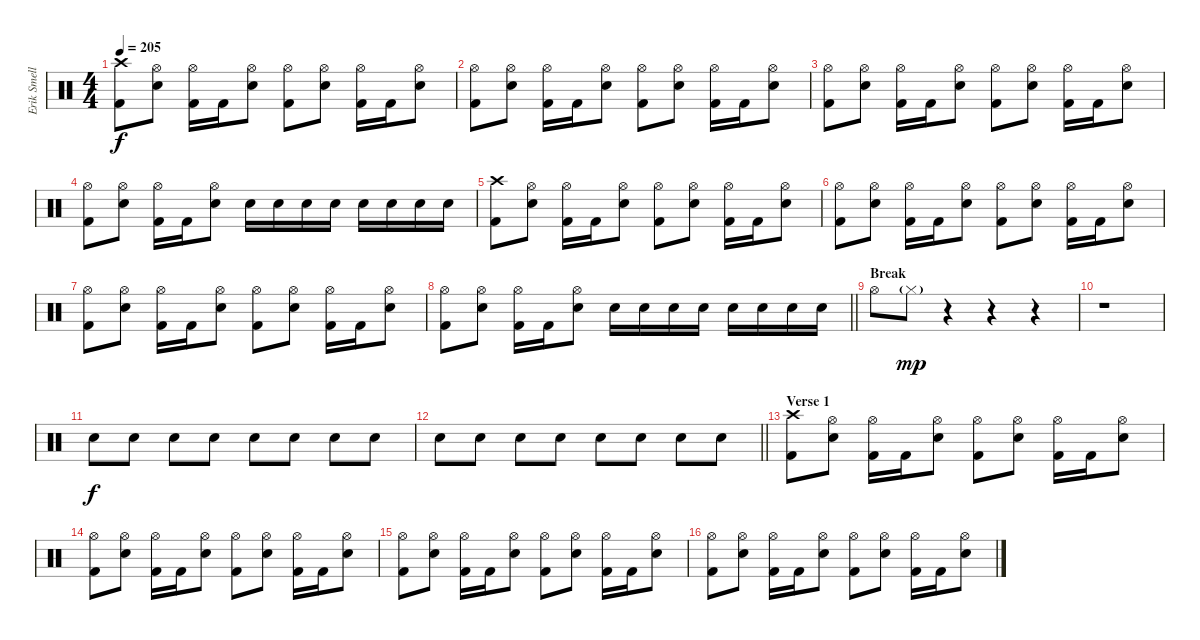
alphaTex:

\track ("Erik Smelly" "Erik Smell") {instrument percussion}
\staff {score}
\articulation defaults
\ts (4 4)
\tempo 205
\clef neutral
\ks c
("Crash high (hit)" "Kick (hit) 2").8{dy f} ("Hi-Hat (open)" "Electric Snare (hit)").8 ("Hi-Hat (open)" "Kick (hit) 2").16 "Kick (hit) 2".16 ("Hi-Hat (open)" "Electric Snare (hit)").8 ("Hi-Hat (open)" "Kick (hit) 2").8 ("Hi-Hat (open)" "Electric Snare (hit)").8 ("Hi-Hat (open)" "Kick (hit) 2").16 "Kick (hit) 2".16 ("Hi-Hat (open)" "Electric Snare (hit)").8 |
("Hi-Hat (open)" "Kick (hit) 2").8 ("Hi-Hat (open)" "Electric Snare (hit)").8 ("Hi-Hat (open)" "Kick (hit) 2").16 "Kick (hit) 2".16 ("Hi-Hat (open)" "Electric Snare (hit)").8 ("Hi-Hat (open)" "Kick (hit) 2").8 ("Hi-Hat (open)" "Electric Snare (hit)").8 ("Hi-Hat (open)" "Kick (hit) 2").16 "Kick (hit) 2".16 ("Hi-Hat (open)" "Electric Snare (hit)").8 |
("Hi-Hat (open)" "Kick (hit) 2").8 ("Hi-Hat (open)" "Electric Snare (hit)").8 ("Hi-Hat (open)" "Kick (hit) 2").16 "Kick (hit) 2".16 ("Hi-Hat (open)" "Electric Snare (hit)").8 ("Hi-Hat (open)" "Kick (hit) 2").8 ("Hi-Hat (open)" "Electric Snare (hit)").8 ("Hi-Hat (open)" "Kick (hit) 2").16 "Kick (hit) 2".16 ("Hi-Hat (open)" "Electric Snare (hit)").8 |
("Hi-Hat (open)" "Kick (hit) 2").8 ("Hi-Hat (open)" "Electric Snare (hit)").8 ("Hi-Hat (open)" "Kick (hit) 2").16 "Kick (hit) 2".16 ("Hi-Hat (open)" "Electric Snare (hit)").8 "Electric Snare (hit)".16 "Electric Snare (hit)".16 "Electric Snare (hit)".16 "Electric Snare (hit)".16 "Electric Snare (hit)".16 "Electric Snare (hit)".16 "Electric Snare (hit)".16 "Electric Snare (hit)".16 |
("Crash high (hit)" "Kick (hit) 2").8 ("Hi-Hat (open)" "Electric Snare (hit)").8 ("Hi-Hat (open)" "Kick (hit) 2").16 "Kick (hit) 2".16 ("Hi-Hat (open)" "Electric Snare (hit)").8 ("Hi-Hat (open)" "Kick (hit) 2").8 ("Hi-Hat (open)" "Electric Snare (hit)").8 ("Hi-Hat (open)" "Kick (hit) 2").16 "Kick (hit) 2".16 ("Hi-Hat (open)" "Electric Snare (hit)").8 |
("Hi-Hat (open)" "Kick (hit) 2").8 ("Hi-Hat (open)" "Electric Snare (hit)").8 ("Hi-Hat (open)" "Kick (hit) 2").16 "Kick (hit) 2".16 ("Hi-Hat (open)" "Electric Snare (hit)").8 ("Hi-Hat (open)" "Kick (hit) 2").8 ("Hi-Hat (open)" "Electric Snare (hit)").8 ("Hi-Hat (open)" "Kick (hit) 2").16 "Kick (hit) 2".16 ("Hi-Hat (open)" "Electric Snare (hit)").8 |
("Hi-Hat (open)" "Kick (hit) 2").8 ("Hi-Hat (open)" "Electric Snare (hit)").8 ("Hi-Hat (open)" "Kick (hit) 2").16 "Kick (hit) 2".16 ("Hi-Hat (open)" "Electric Snare (hit)").8 ("Hi-Hat (open)" "Kick (hit) 2").8 ("Hi-Hat (open)" "Electric Snare (hit)").8 ("Hi-Hat (open)" "Kick (hit) 2").16 "Kick (hit) 2".16 ("Hi-Hat (open)" "Electric Snare (hit)").8 |
\barLineRight lightlight
("Hi-Hat (open)" "Kick (hit) 2").8 ("Hi-Hat (open)" "Electric Snare (hit)").8 ("Hi-Hat (open)" "Kick (hit) 2").16 "Kick (hit) 2".16 ("Hi-Hat (open)" "Electric Snare (hit)").8 "Electric Snare (hit)".16 "Electric Snare (hit)".16 "Electric Snare (hit)".16 "Electric Snare (hit)".16 "Electric Snare (hit)".16 "Electric Snare (hit)".16 "Electric Snare (hit)".16 "Electric Snare (hit)".16 |
\section ("" "Break")
"Hi-Hat (open)".8 "Hi-Hat (closed)"{g}.8{dy mp} r.4 r.4 r.4 |
r.1 |
"Electric Snare (hit)".8{dy f} "Electric Snare (hit)".8 "Electric Snare (hit)".8 "Electric Snare (hit)".8 "Electric Snare (hit)".8 "Electric Snare (hit)".8 "Electric Snare (hit)".8 "Electric Snare (hit)".8 |
\barLineRight lightlight "Electric Snare (hit)".8 "Electric Snare (hit)".8 "Electric Snare (hit)".8 "Electric Snare (hit)".8 "Electric Snare (hit)".8 "Electric Snare (hit)".8 "Electric Snare (hit)".8 "Electric Snare (hit)".8
|
\section ("" "Verse 1")
("Crash high (hit)" "Kick (hit) 2").8 ("Hi-Hat (open)" "Electric Snare (hit)").8 ("Hi-Hat (open)" "Kick (hit) 2").16 "Kick (hit) 2".16 ("Hi-Hat (open)" "Electric Snare (hit)").8 ("Hi-Hat (open)" "Kick (hit) 2").8 ("Hi-Hat (open)" "Electric Snare (hit)").8 ("Hi-Hat (open)" "Kick (hit) 2").16 "Kick (hit) 2".16 ("Hi-Hat (open)" "Electric Snare (hit)").8 |
("Hi-Hat (open)" "Kick (hit) 2").8 ("Hi-Hat (open)" "Electric Snare (hit)").8 ("Hi-Hat (open)" "Kick (hit) 2").16 "Kick (hit) 2".16 ("Hi-Hat (open)" "Electric Snare (hit)").8 ("Hi-Hat (open)" "Kick (hit) 2").8 ("Hi-Hat (open)" "Electric Snare (hit)").8 ("Hi-Hat (open)" "Kick (hit) 2").16 "Kick (hit) 2".16 ("Hi-Hat (open)" "Electric Snare (hit)").8 |
("Hi-Hat (open)" "Kick (hit) 2").8 ("Hi-Hat (open)" "Electric Snare (hit)").8 ("Hi-Hat (open)" "Kick (hit) 2").16 "Kick (hit) 2".16 ("Hi-Hat (open)" "Electric Snare (hit)").8 ("Hi-Hat (open)" "Kick (hit) 2").8 ("Hi-Hat (open)" "Electric Snare (hit)").8 ("Hi-Hat (open)" "Kick (hit) 2").16 "Kick (hit) 2".16 ("Hi-Hat (open)" "Electric Snare (hit)").8 |
("Hi-Hat (open)" "Kick (hit) 2").8 ("Hi-Hat (open)" "Electric Snare (hit)").8 ("Hi-Hat (open)" "Kick (hit) 2").16 "Kick (hit) 2".16 ("Hi-Hat (open)" "Electric Snare (hit)").8 ("Hi-Hat (open)" "Kick (hit) 2").8 ("Hi-Hat (open)" "Electric Snare (hit)").8 ("Hi-Hat (open)" "Kick (hit) 2").16 "Kick (hit) 2".16 ("Hi-Hat (open)" "Electric Snare (hit)").8
